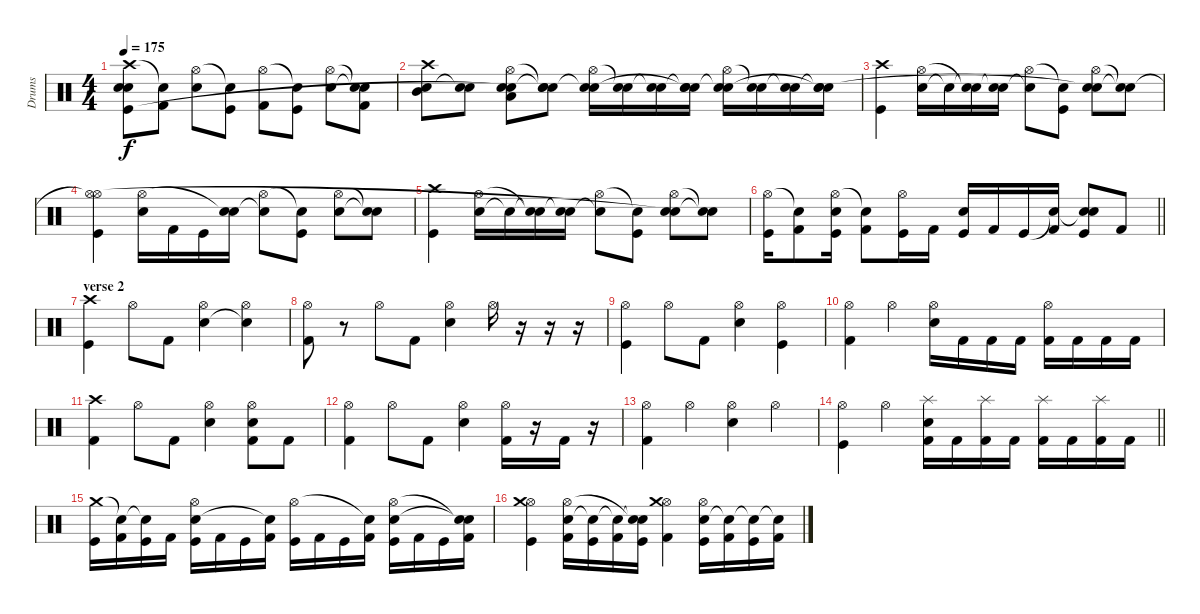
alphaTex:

\track ("Drums" "Drums") {instrument percussion}
\staff {score}
\articulation defaults
\ts (4 4)
\tempo 175
\clef neutral
\ks c
("Crash high (hit)" "Snare (hit)"{t} "Snare (hit)"{t} "Kick (hit)").8{dy f} ("Snare (hit)"{t} "Kick (hit) 2").8 ("Hi-Hat (open)" "Snare (hit) 2").8 ("Snare (hit)"{t} "Kick (hit)").8 ("Hi-Hat (open)" "Kick (hit) 2").8 ("Snare (hit)"{t} "Kick (hit)").8 ("Hi-Hat (open)" "Snare (hit) 2").8 ("Snare (hit)"{t} "Snare (hit)"{t} "Kick (hit) 2").8 |
("Mid Tom (hit)" "Snare (hit) 2" "Crash high (hit)").8 ("Snare (hit) 2" "Snare (hit)"{t}).8 ("Low Floor Tom (hit)" "Snare (hit) 2" "Hi-Hat (open)" "Snare (hit)"{t}).8 ("Snare (hit) 2" "Snare (hit)"{t} "Snare (hit)"{t}).8 ("Snare (hit) 2" "Hi-Hat (open)" "Snare (hit)"{t}).16 ("Snare (hit) 2" "Snare (hit)"{t}).16 ("Snare (hit) 2" "Snare (hit)"{t}).16 ("Snare (hit) 2" "Snare (hit)"{t} "Snare (hit)"{t}).16 ("Snare (hit) 2" "Hi-Hat (open)" "Snare (hit)"{t}).16 ("Snare (hit) 2" "Snare (hit)"{t}).16 ("Snare (hit) 2" "Snare (hit)"{t}).16 ("Snare (hit) 2" "Snare (hit)"{t} "Snare (hit)"{t}).16 |
("Kick (hit)" "Crash high (hit)").4 ("Snare (hit) 2" "Hi-Hat (open)").16 "Snare (hit)"{t}.16 ("Snare (hit)"{t} "Snare (hit)"{t}).16 ("Snare (hit) 2" "Snare (hit)"{t}).16 ("Snare (hit)"{t} "Hi-Hat (open)").8 ("Kick (hit)" "Snare (hit)"{t}).8 ("Snare (hit) 2" "Hi-Hat (open)" "Snare (hit)"{t}).8 ("Snare (hit)"{t} "Snare (hit)"{t}).8 |
("Kick (hit)" "Hi-Hat (open)"{t} "Hi-Hat (open)").4 ("Snare (hit) 2" "Hi-Hat (open)").16 "Kick (hit) 2".16 "Kick (hit)".16 ("Snare (hit) 2" "Snare (hit)"{t}).16 ("Snare (hit)"{t} "Hi-Hat (open)").8 ("Kick (hit)" "Snare (hit)"{t}).8 ("Snare (hit) 2" "Hi-Hat (open)").8 ("Snare (hit)"{t} "Snare (hit)"{t}).8 |
("Kick (hit)" "Crash high (hit)").4 ("Snare (hit) 2" "Hi-Hat (open)").16 "Snare (hit)"{t}.16 ("Snare (hit)"{t} "Snare (hit)"{t}).16 ("Snare (hit) 2" "Snare (hit)"{t}).16 ("Snare (hit)"{t} "Hi-Hat (open)").8 ("Kick (hit)" "Snare (hit)"{t}).8 ("Snare (hit) 2" "Hi-Hat (open)" "Snare (hit)"{t}).8 ("Snare (hit)"{t} "Snare (hit)"{t}).8 |
\barLineRight lightlight
("Hi-Hat (open)" "Kick (hit)").16 ("Snare (hit)"{t} "Kick (hit) 2").8 ("Hi-Hat (open)" "Snare (hit) 2" "Kick (hit)").16 ("Snare (hit)"{t} "Kick (hit) 2").8 ("Hi-Hat (open)" "Kick (hit)").16 "Kick (hit) 2".16 ("Snare (hit) 2" "Kick (hit)").16 "Kick (hit) 2".16 "Kick (hit)".16 ("Snare (hit)"{t} "Kick (hit) 2").16 ("Snare (hit)"{t} "Snare (hit) 2" "Kick (hit)").8 "Kick (hit) 2".8 |
\section ("" "verse 2")
("Kick (hit)" "Crash high (hit)").4 "Hi-Hat (open)".8 "Kick (hit) 2".8 ("Hi-Hat (open)" "Snare (hit) 2").4 ("Hi-Hat (open)" "Snare (hit)"{t}).4 |
("Hi-Hat (open)" "Kick (hit) 2").8 r.8 "Hi-Hat (open)".8 "Kick (hit) 2".8 ("Hi-Hat (open)" "Snare (hit) 2").4 "Hi-Hat (open)".16 r.16 r.16 r.16 |
("Hi-Hat (open)" "Kick (hit)").4 "Hi-Hat (open)".8 "Kick (hit) 2".8 ("Hi-Hat (open)" "Snare (hit) 2").4 ("Hi-Hat (open)" "Kick (hit)").4 |
("Hi-Hat (open)" "Kick (hit) 2").4 "Hi-Hat (open)".4 ("Hi-Hat (open)" "Snare (hit) 2").16 "Kick (hit) 2".16 "Kick (hit) 2".16 "Kick (hit) 2".16 ("Hi-Hat (open)" "Kick (hit) 2").16 "Kick (hit) 2".16 "Kick (hit) 2".16 "Kick (hit) 2".16 |
("Kick (hit) 2" "Crash high (hit)").4 "Hi-Hat (open)".8 "Kick (hit) 2".8 ("Hi-Hat (open)" "Snare (hit) 2").4 ("Hi-Hat (open)" "Kick (hit) 2" "Snare (hit)").8 "Kick (hit) 2".8 |
("Hi-Hat (open)" "Kick (hit) 2").4 "Hi-Hat (open)".8 "Kick (hit) 2".8 ("Hi-Hat (open)" "Snare (hit) 2").4 ("Hi-Hat (open)" "Kick (hit) 2").16 r.16 "Kick (hit) 2".16 r.16 |
("Hi-Hat (open)" "Kick (hit) 2").4 "Hi-Hat (open)".4 ("Hi-Hat (open)" "Snare (hit) 2").4 "Hi-Hat (open)".4 |
\barLineRight lightlight
("Hi-Hat (open)" "Kick (hit)").4 "Hi-Hat (open)".4 ("Splash (hit)" "Snare (hit) 2" "Kick (hit) 2").16 "Kick (hit) 2".16 ("Splash (hit)" "Kick (hit) 2").16 "Kick (hit) 2".16 ("Splash (hit)" "Kick (hit) 2").16 "Kick (hit) 2".16 ("Splash (hit)" "Kick (hit) 2").16 "Kick (hit) 2".16 |
("Kick (hit)" "Crash medium (hit)").16 ("Kick (hit) 2" "Snare (hit)"{t}).16 ("Kick (hit)" "Snare (hit)"{t}).16 "Kick (hit) 2".16 ("Kick (hit)" "Snare (hit) 2" "Hi-Hat (open)").16 "Kick (hit) 2".16 "Kick (hit)".16 ("Kick (hit) 2" "Snare (hit)"{t}).16 ("Kick (hit)" "Hi-Hat (open)").16 "Kick (hit) 2".16 "Kick (hit)".16 ("Kick (hit) 2" "Snare (hit)"{t}).16 ("Kick (hit)" "Snare (hit) 2" "Hi-Hat (open)").16 "Kick (hit) 2".16 "Kick (hit)".16 ("Kick (hit) 2" "Snare (hit)"{t} "Snare (hit)"{t}).16 |
("Kick (hit)" "Hi-Hat (open)" "Crash medium (hit)").4 ("Kick (hit) 2" "Snare (hit) 2" "Hi-Hat (open)").16 ("Kick (hit)" "Snare (hit)"{t}).16 ("Kick (hit) 2" "Snare (hit)"{t}).16 ("Kick (hit)" "Snare (hit)"{t} "Snare (hit)"{t}).16 ("Kick (hit) 2" "Hi-Hat (open)" "Crash medium (hit)").4 ("Kick (hit)" "Snare (hit) 2" "Hi-Hat (open)").16 ("Kick (hit) 2" "Snare (hit)"{t}).16 ("Kick (hit)" "Snare (hit)"{t}).16 ("Kick (hit) 2" "Snare (hit)"{t}).16
